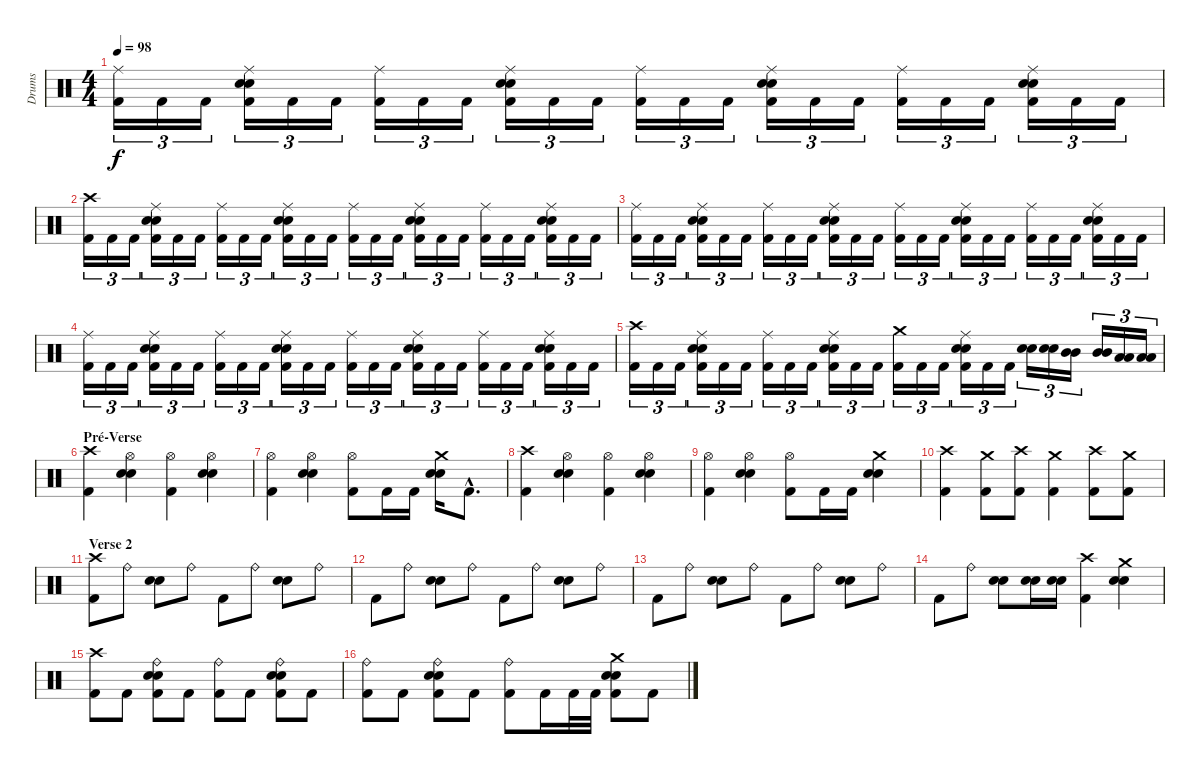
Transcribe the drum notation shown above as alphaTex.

\track ("Drums" "Drums") {instrument percussion}
\staff {score}
\articulation defaults
\ts (4 4)
\tempo 98
\clef neutral
\ks c
("Ride (middle)" "Kick (hit) 2").16{tu (3 2) dy f} "Kick (hit) 2".16{tu (3 2)} "Kick (hit) 2".16{tu (3 2)} ("Ride (middle)" "Snare (hit) 2" "Electric Snare (hit)" "Kick (hit) 2").16{tu (3 2)} "Kick (hit) 2".16{tu (3 2)} "Kick (hit) 2".16{tu (3 2)} ("Ride (middle)" "Kick (hit) 2").16{tu (3 2)} "Kick (hit) 2".16{tu (3 2)} "Kick (hit) 2".16{tu (3 2)} ("Ride (middle)" "Snare (hit) 2" "Electric Snare (hit)" "Kick (hit) 2").16{tu (3 2)} "Kick (hit) 2".16{tu (3 2)} "Kick (hit) 2".16{tu (3 2)} ("Ride (middle)" "Kick (hit) 2").16{tu (3 2)} "Kick (hit) 2".16{tu (3 2)} "Kick (hit) 2".16{tu (3 2)} ("Ride (middle)" "Snare (hit) 2" "Electric Snare (hit)" "Kick (hit) 2").16{tu (3 2)} "Kick (hit) 2".16{tu (3 2)} "Kick (hit) 2".16{tu (3 2)} ("Ride (middle)" "Kick (hit) 2").16{tu (3 2)} "Kick (hit) 2".16{tu (3 2)} "Kick (hit) 2".16{tu (3 2)} ("Ride (middle)" "Snare (hit) 2" "Electric Snare (hit)" "Kick (hit) 2").16{tu (3 2)} "Kick (hit) 2".16{tu (3 2)} "Kick (hit) 2".16{tu (3 2)} |
("Crash high (hit)" "Kick (hit) 2").16{tu (3 2)} "Kick (hit) 2".16{tu (3 2)} "Kick (hit) 2".16{tu (3 2)} ("Ride (middle)" "Snare (hit) 2" "Electric Snare (hit)" "Kick (hit) 2").16{tu (3 2)} "Kick (hit) 2".16{tu (3 2)} "Kick (hit) 2".16{tu (3 2)} ("Ride (middle)" "Kick (hit) 2").16{tu (3 2)} "Kick (hit) 2".16{tu (3 2)} "Kick (hit) 2".16{tu (3 2)} ("Ride (middle)" "Snare (hit) 2" "Electric Snare (hit)" "Kick (hit) 2").16{tu (3 2)} "Kick (hit) 2".16{tu (3 2)} "Kick (hit) 2".16{tu (3 2)} ("Ride (middle)" "Kick (hit) 2").16{tu (3 2)} "Kick (hit) 2".16{tu (3 2)} "Kick (hit) 2".16{tu (3 2)} ("Ride (middle)" "Snare (hit) 2" "Electric Snare (hit)" "Kick (hit) 2").16{tu (3 2)} "Kick (hit) 2".16{tu (3 2)} "Kick (hit) 2".16{tu (3 2)} ("Ride (middle)" "Kick (hit) 2").16{tu (3 2)} "Kick (hit) 2".16{tu (3 2)} "Kick (hit) 2".16{tu (3 2)} ("Ride (middle)" "Snare (hit) 2" "Electric Snare (hit)" "Kick (hit) 2").16{tu (3 2)} "Kick (hit) 2".16{tu (3 2)} "Kick (hit) 2".16{tu (3 2)} |
("Ride (middle)" "Kick (hit) 2").16{tu (3 2)} "Kick (hit) 2".16{tu (3 2)} "Kick (hit) 2".16{tu (3 2)} ("Ride (middle)" "Snare (hit) 2" "Electric Snare (hit)" "Kick (hit) 2").16{tu (3 2)} "Kick (hit) 2".16{tu (3 2)} "Kick (hit) 2".16{tu (3 2)} ("Ride (middle)" "Kick (hit) 2").16{tu (3 2)} "Kick (hit) 2".16{tu (3 2)} "Kick (hit) 2".16{tu (3 2)} ("Ride (middle)" "Snare (hit) 2" "Electric Snare (hit)" "Kick (hit) 2").16{tu (3 2)} "Kick (hit) 2".16{tu (3 2)} "Kick (hit) 2".16{tu (3 2)} ("Ride (middle)" "Kick (hit) 2").16{tu (3 2)} "Kick (hit) 2".16{tu (3 2)} "Kick (hit) 2".16{tu (3 2)} ("Ride (middle)" "Snare (hit) 2" "Electric Snare (hit)" "Kick (hit) 2").16{tu (3 2)} "Kick (hit) 2".16{tu (3 2)} "Kick (hit) 2".16{tu (3 2)} ("Ride (middle)" "Kick (hit) 2").16{tu (3 2)} "Kick (hit) 2".16{tu (3 2)} "Kick (hit) 2".16{tu (3 2)} ("Ride (middle)" "Snare (hit) 2" "Electric Snare (hit)" "Kick (hit) 2").16{tu (3 2)} "Kick (hit) 2".16{tu (3 2)} "Kick (hit) 2".16{tu (3 2)} |
("Ride (middle)" "Kick (hit) 2").16{tu (3 2)} "Kick (hit) 2".16{tu (3 2)} "Kick (hit) 2".16{tu (3 2)} ("Ride (middle)" "Snare (hit) 2" "Electric Snare (hit)" "Kick (hit) 2").16{tu (3 2)} "Kick (hit) 2".16{tu (3 2)} "Kick (hit) 2".16{tu (3 2)} ("Ride (middle)" "Kick (hit) 2").16{tu (3 2)} "Kick (hit) 2".16{tu (3 2)} "Kick (hit) 2".16{tu (3 2)} ("Ride (middle)" "Snare (hit) 2" "Electric Snare (hit)" "Kick (hit) 2").16{tu (3 2)} "Kick (hit) 2".16{tu (3 2)} "Kick (hit) 2".16{tu (3 2)} ("Ride (middle)" "Kick (hit) 2").16{tu (3 2)} "Kick (hit) 2".16{tu (3 2)} "Kick (hit) 2".16{tu (3 2)} ("Ride (middle)" "Snare (hit) 2" "Electric Snare (hit)" "Kick (hit) 2").16{tu (3 2)} "Kick (hit) 2".16{tu (3 2)} "Kick (hit) 2".16{tu (3 2)} ("Ride (middle)" "Kick (hit) 2").16{tu (3 2)} "Kick (hit) 2".16{tu (3 2)} "Kick (hit) 2".16{tu (3 2)} ("Ride (middle)" "Snare (hit) 2" "Electric Snare (hit)" "Kick (hit) 2").16{tu (3 2)} "Kick (hit) 2".16{tu (3 2)} "Kick (hit) 2".16{tu (3 2)} |
("Crash high (hit)" "Kick (hit) 2").16{tu (3 2)} "Kick (hit) 2".16{tu (3 2)} "Kick (hit) 2".16{tu (3 2)} ("Ride (middle)" "Snare (hit) 2" "Electric Snare (hit)" "Kick (hit) 2").16{tu (3 2)} "Kick (hit) 2".16{tu (3 2)} "Kick (hit) 2".16{tu (3 2)} ("Ride (middle)" "Kick (hit) 2").16{tu (3 2)} "Kick (hit) 2".16{tu (3 2)} "Kick (hit) 2".16{tu (3 2)} ("Ride (middle)" "Snare (hit) 2" "Electric Snare (hit)" "Kick (hit) 2").16{tu (3 2)} "Kick (hit) 2".16{tu (3 2)} "Kick (hit) 2".16{tu (3 2)} ("Crash medium (hit)" "Kick (hit) 2").16{tu (3 2)} "Kick (hit) 2".16{tu (3 2)} "Kick (hit) 2".16{tu (3 2)} ("Ride (middle)" "Snare (hit) 2" "Electric Snare (hit)" "Kick (hit) 2").16{tu (3 2)} "Kick (hit) 2".16{tu (3 2)} "Kick (hit) 2".16{tu (3 2)} ("Snare (hit) 2" "Electric Snare (hit)").16{tu (3 2)} ("Snare (hit) 2" "Electric Snare (hit)").16{tu (3 2)} ("Mid Tom (hit)" "Mid Tom (hit)").16{tu (3 2)} ("Mid Tom (hit)" "Mid Tom (hit)").16{tu (3 2)} ("Low Tom (hit)" "Low Tom (hit)").16{tu (3 2)} ("Low Tom (hit)" "Low Tom (hit)").16{tu (3 2)} |
\section ("" "Pré-Verse")
("Crash high (hit)" "Kick (hit) 2").4 ("Hi-Hat (open)" "Snare (hit) 2" "Electric Snare (hit)").4 ("Hi-Hat (open)" "Kick (hit) 2").4 ("Hi-Hat (open)" "Snare (hit) 2" "Electric Snare (hit)").4 |
("Hi-Hat (open)" "Kick (hit) 2").4 ("Hi-Hat (open)" "Snare (hit) 2" "Electric Snare (hit)").4 ("Hi-Hat (open)" "Kick (hit) 2").8 "Kick (hit) 2".16 "Kick (hit) 2".16 ("Crash medium (hit)" "Snare (hit) 2" "Electric Snare (hit)").16 "Kick (hit) 2"{hac}.8{d} |
("Crash high (hit)" "Kick (hit) 2").4 ("Hi-Hat (open)" "Snare (hit) 2" "Electric Snare (hit)").4 ("Hi-Hat (open)" "Kick (hit) 2").4 ("Hi-Hat (open)" "Snare (hit) 2" "Electric Snare (hit)").4 |
("Hi-Hat (open)" "Kick (hit) 2").4 ("Hi-Hat (open)" "Snare (hit) 2" "Electric Snare (hit)").4 ("Hi-Hat (open)" "Kick (hit) 2").8 "Kick (hit) 2".16 "Kick (hit) 2".16 ("Crash medium (hit)" "Snare (hit) 2" "Electric Snare (hit)").4 |
("Crash high (hit)" "Kick (hit) 2").4 ("Crash medium (hit)" "Kick (hit) 2").8 ("Crash high (hit)" "Kick (hit) 2").8 ("Crash medium (hit)" "Kick (hit) 2").4 ("Crash high (hit)" "Kick (hit) 2").8 ("Crash medium (hit)" "Kick (hit) 2").8 |
\section ("" "Verse 2")
("Crash high (hit)" "Kick (hit) 2").8 "Ride (bell)".8 ("Snare (hit) 2" "Electric Snare (hit)").8 "Ride (bell)".8 "Kick (hit) 2".8 "Ride (bell)".8 ("Snare (hit) 2" "Electric Snare (hit)").8 "Ride (bell)".8 |
"Kick (hit) 2".8 "Ride (bell)".8 ("Snare (hit) 2" "Electric Snare (hit)").8 "Ride (bell)".8 "Kick (hit) 2".8 "Ride (bell)".8 ("Snare (hit) 2" "Electric Snare (hit)").8 "Ride (bell)".8 |
"Kick (hit) 2".8 "Ride (bell)".8 ("Snare (hit) 2" "Electric Snare (hit)").8 "Ride (bell)".8 "Kick (hit) 2".8 "Ride (bell)".8 ("Snare (hit) 2" "Electric Snare (hit)").8 "Ride (bell)".8 |
"Kick (hit) 2".8 "Ride (bell)".8 ("Snare (hit) 2" "Electric Snare (hit)").8 ("Snare (hit) 2" "Electric Snare (hit)").16 ("Snare (hit) 2" "Electric Snare (hit)").16 ("Crash high (hit)" "Kick (hit) 2").4 ("Crash medium (hit)" "Snare (hit) 2" "Electric Snare (hit)").4 |
("Crash high (hit)" "Kick (hit) 2").8 "Kick (hit) 2".8 ("Ride (bell)" "Snare (hit) 2" "Electric Snare (hit)" "Kick (hit) 2").8 "Kick (hit) 2".8 ("Ride (bell)" "Kick (hit) 2").8 "Kick (hit) 2".8 ("Ride (bell)" "Snare (hit) 2" "Electric Snare (hit)" "Kick (hit) 2").8 "Kick (hit) 2".8 |
("Ride (bell)" "Kick (hit) 2").8 "Kick (hit) 2".8 ("Ride (bell)" "Snare (hit) 2" "Electric Snare (hit)" "Kick (hit) 2").8 "Kick (hit) 2".8 ("Ride (bell)" "Kick (hit) 2").8 "Kick (hit) 2".16 "Kick (hit) 2".32 "Kick (hit) 2".32 ("Crash medium (hit)" "Snare (hit) 2" "Electric Snare (hit)" "Kick (hit) 2").8 "Kick (hit) 2".8
